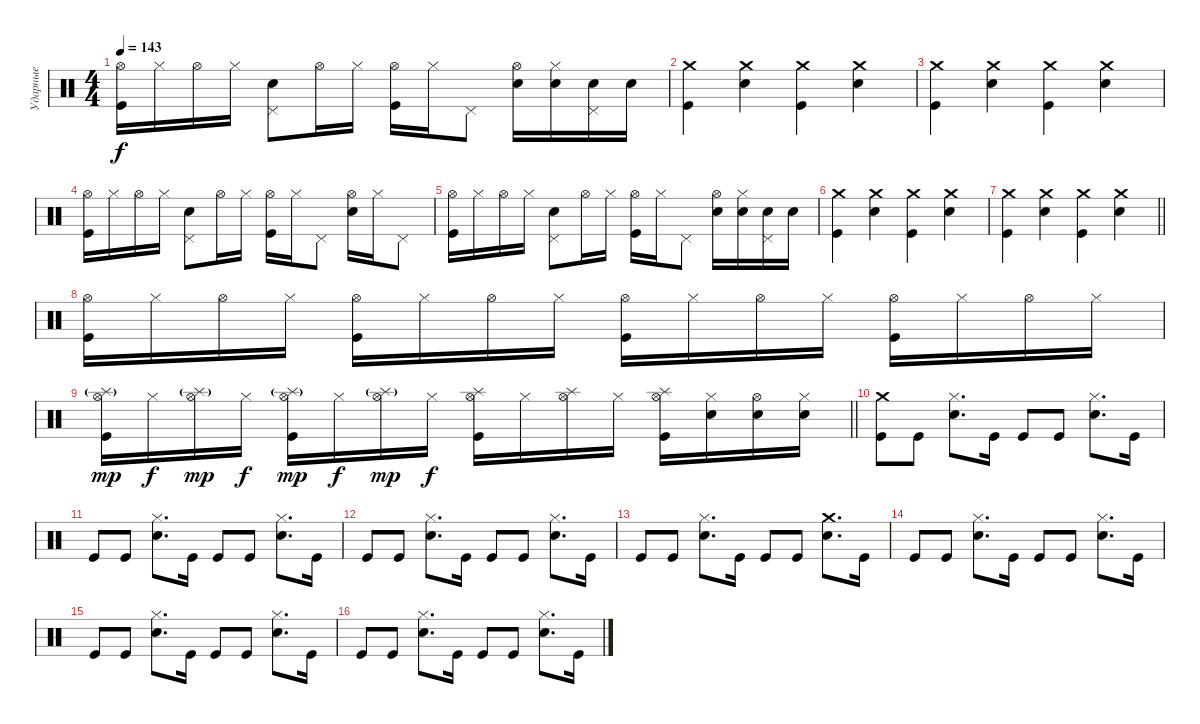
\track ("Ударные" "Ударные") {instrument percussion}
\staff {score}
\articulation defaults
\ts (4 4)
\tempo 143
\clef neutral
\ks c
("Hi-Hat (open)" "Kick (hit)").16{dy f} "Hi-Hat (closed)".16 "Hi-Hat (open)".16 "Hi-Hat (closed)".16 ("Pedal Hi-Hat (hit)" "Electric Snare (hit)").8 "Hi-Hat (open)".16 "Hi-Hat (closed)".16 ("Hi-Hat (open)" "Kick (hit)").16 "Hi-Hat (closed)".16 "Pedal Hi-Hat (hit)".8 ("Hi-Hat (open)" "Snare (hit) 2").16 ("Hi-Hat (closed)" "Snare (hit) 2").16 ("Pedal Hi-Hat (hit)" "Snare (hit) 2").16 "Snare (hit) 2".16 |
("Crash medium (hit)" "Kick (hit)").4 ("Crash medium (hit)" "Snare (hit) 2").4 ("Crash medium (hit)" "Kick (hit)").4 ("Crash medium (hit)" "Snare (hit) 2").4 |
("Crash medium (hit)" "Kick (hit)").4 ("Crash medium (hit)" "Snare (hit) 2").4 ("Crash medium (hit)" "Kick (hit)").4 ("Crash medium (hit)" "Snare (hit) 2").4 |
("Hi-Hat (open)" "Kick (hit)").16 "Hi-Hat (closed)".16 "Hi-Hat (open)".16 "Hi-Hat (closed)".16 ("Pedal Hi-Hat (hit)" "Electric Snare (hit)").8 "Hi-Hat (open)".16 "Hi-Hat (closed)".16 ("Hi-Hat (open)" "Kick (hit)").16 "Hi-Hat (closed)".16 "Pedal Hi-Hat (hit)".8 ("Hi-Hat (open)" "Electric Snare (hit)").16 "Hi-Hat (closed)".16 "Pedal Hi-Hat (hit)".8 |
("Hi-Hat (open)" "Kick (hit)").16 "Hi-Hat (closed)".16 "Hi-Hat (open)".16 "Hi-Hat (closed)".16 ("Pedal Hi-Hat (hit)" "Electric Snare (hit)").8 "Hi-Hat (open)".16 "Hi-Hat (closed)".16 ("Hi-Hat (open)" "Kick (hit)").16 "Hi-Hat (closed)".16 "Pedal Hi-Hat (hit)".8 ("Hi-Hat (open)" "Snare (hit) 2").16 ("Hi-Hat (closed)" "Snare (hit) 2").16 ("Pedal Hi-Hat (hit)" "Snare (hit) 2").16 "Snare (hit) 2".16 |
("Crash medium (hit)" "Kick (hit)").4 ("Crash medium (hit)" "Snare (hit) 2").4 ("Crash medium (hit)" "Kick (hit)").4 ("Crash medium (hit)" "Snare (hit) 2").4 |
\barLineRight lightlight
("Crash medium (hit)" "Kick (hit)").4 ("Crash medium (hit)" "Snare (hit) 2").4 ("Crash medium (hit)" "Kick (hit)").4 ("Crash medium (hit)" "Snare (hit) 2").4 |
("Hi-Hat (open)" "Kick (hit)").16 "Hi-Hat (closed)".16 "Hi-Hat (open)".16 "Hi-Hat (closed)".16 ("Hi-Hat (open)" "Kick (hit)").16 "Hi-Hat (closed)".16 "Hi-Hat (open)".16 "Hi-Hat (closed)".16 ("Hi-Hat (open)" "Kick (hit)").16 "Hi-Hat (closed)".16 "Hi-Hat (open)".16 "Hi-Hat (closed)".16 ("Hi-Hat (open)" "Kick (hit)").16 "Hi-Hat (closed)".16 "Hi-Hat (open)".16 "Hi-Hat (closed)".16 |
\barLineRight lightlight
("Hi-Hat (open)" "Splash (hit)"{g} "Kick (hit)").16{dy mp} "Hi-Hat (closed)".16{dy f} ("Hi-Hat (open)" "Splash (hit)"{g}).16{dy mp} "Hi-Hat (closed)".16{dy f} ("Hi-Hat (open)" "Splash (hit)"{g} "Kick (hit)").16{dy mp} "Hi-Hat (closed)".16{dy f} ("Hi-Hat (open)" "Splash (hit)"{g}).16{dy mp} "Hi-Hat (closed)".16{dy f} ("Hi-Hat (open)" "Splash (hit)" "Kick (hit)").16 "Hi-Hat (closed)".16 ("Hi-Hat (open)" "Splash (hit)").16 "Hi-Hat (closed)".16 ("Hi-Hat (open)" "Splash (hit)" "Kick (hit)").16 ("Hi-Hat (closed)" "Snare (hit) 2").16 ("Hi-Hat (open)" "Snare (hit) 2").16 ("Hi-Hat (closed)" "Snare (hit) 2").16 |
("Crash medium (hit)" "Kick (hit)").8 "Kick (hit)".8 ("Hi-Hat (closed)" "Electric Snare (hit)").8{d} "Kick (hit)".16 "Kick (hit)".8 "Kick (hit)".8 ("Hi-Hat (closed)" "Electric Snare (hit)").8{d} "Kick (hit)".16 |
"Kick (hit)".8 "Kick (hit)".8 ("Hi-Hat (closed)" "Electric Snare (hit)").8{d} "Kick (hit)".16 "Kick (hit)".8 "Kick (hit)".8 ("Hi-Hat (closed)" "Electric Snare (hit)").8{d} "Kick (hit)".16 |
"Kick (hit)".8 "Kick (hit)".8 ("Hi-Hat (closed)" "Electric Snare (hit)").8{d} "Kick (hit)".16 "Kick (hit)".8 "Kick (hit)".8 ("Hi-Hat (closed)" "Electric Snare (hit)").8{d} "Kick (hit)".16 |
"Kick (hit)".8 "Kick (hit)".8 ("Hi-Hat (closed)" "Electric Snare (hit)").8{d} "Kick (hit)".16 "Kick (hit)".8 "Kick (hit)".8 ("Crash medium (hit)" "Electric Snare (hit)").8{d} "Kick (hit)".16 |
"Kick (hit)".8 "Kick (hit)".8 ("Hi-Hat (closed)" "Electric Snare (hit)").8{d} "Kick (hit)".16 "Kick (hit)".8 "Kick (hit)".8 ("Hi-Hat (closed)" "Electric Snare (hit)").8{d} "Kick (hit)".16 |
"Kick (hit)".8 "Kick (hit)".8 ("Hi-Hat (closed)" "Electric Snare (hit)").8{d} "Kick (hit)".16 "Kick (hit)".8 "Kick (hit)".8 ("Hi-Hat (closed)" "Electric Snare (hit)").8{d} "Kick (hit)".16 |
"Kick (hit)".8 "Kick (hit)".8 ("Hi-Hat (closed)" "Electric Snare (hit)").8{d} "Kick (hit)".16 "Kick (hit)".8 "Kick (hit)".8 ("Hi-Hat (closed)" "Electric Snare (hit)").8{d} "Kick (hit)".16
